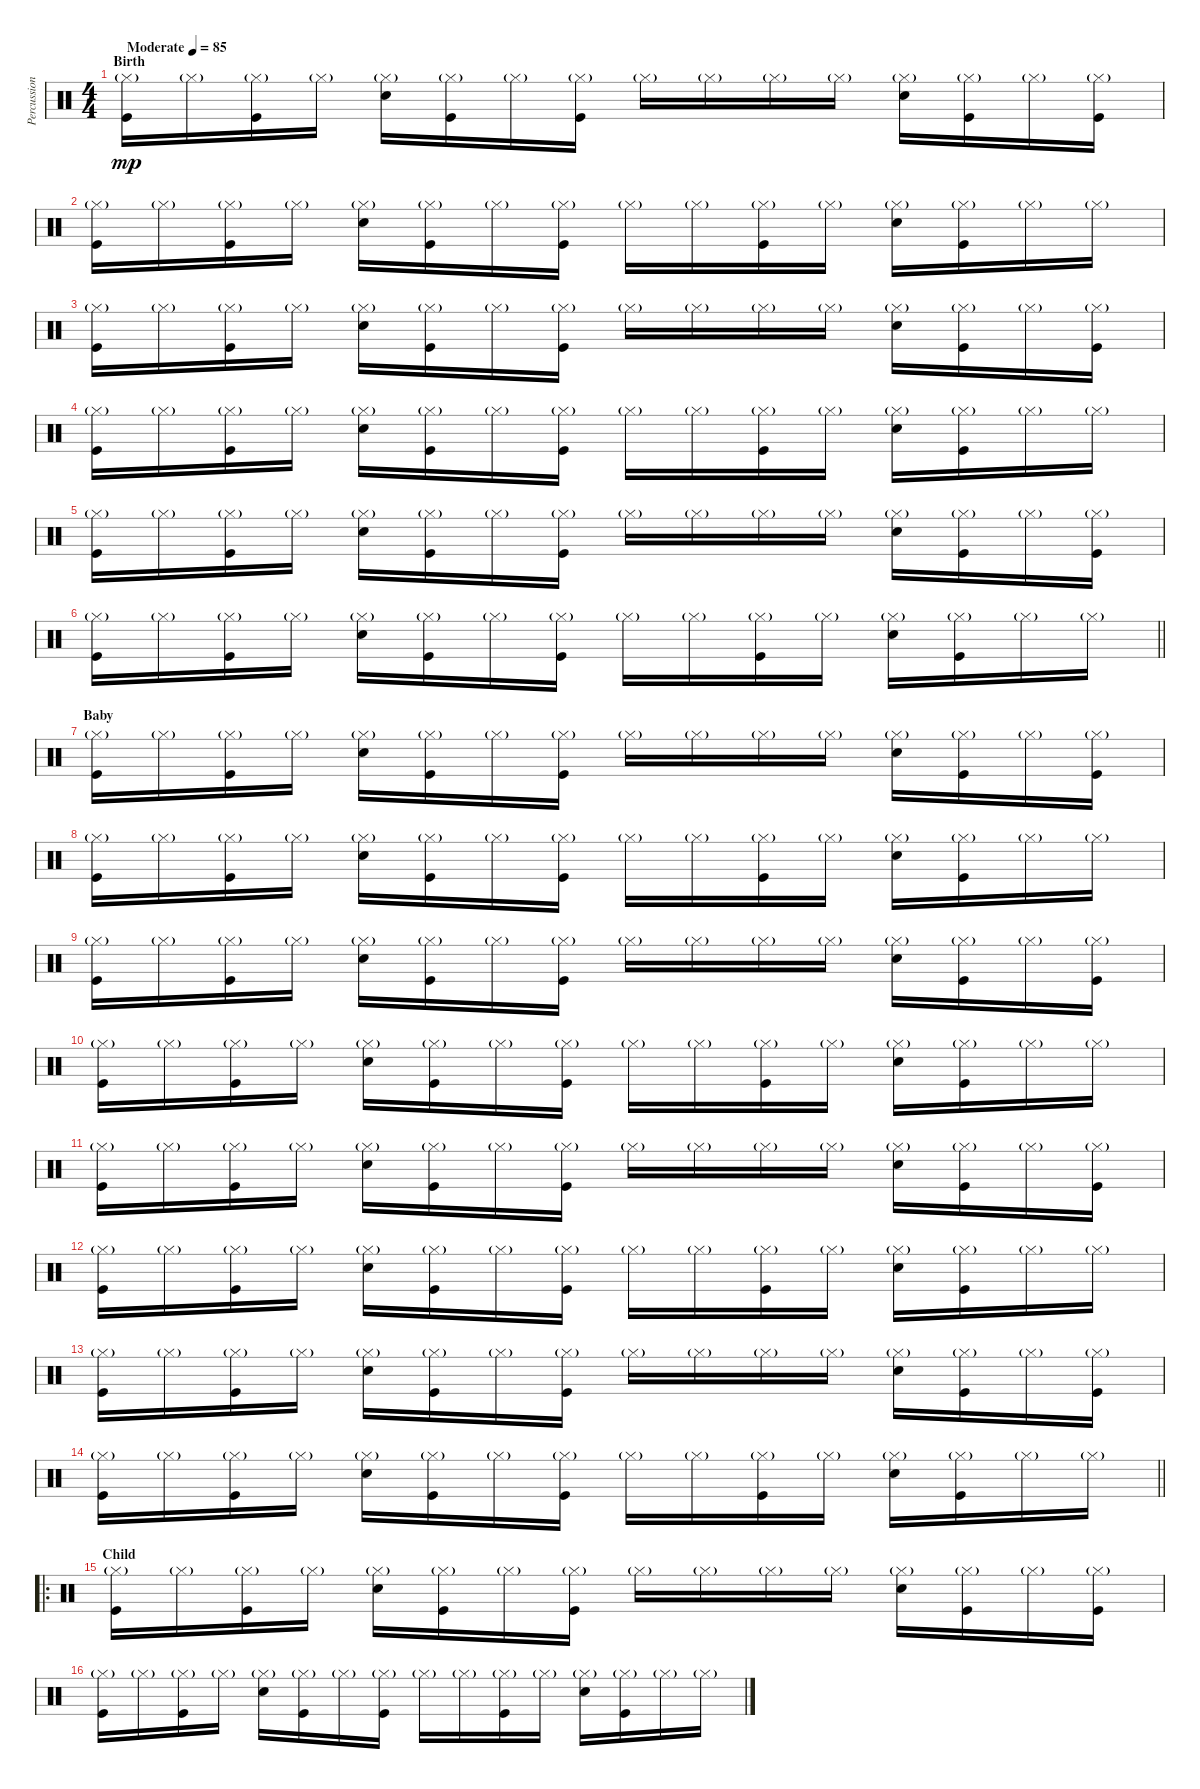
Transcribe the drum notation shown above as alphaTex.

\track ("Percussion" "Percussion") {instrument percussion}
\staff {score}
\articulation defaults
\ts (4 4)
\section ("" "Birth")
\tempo (85 "Moderate")
\clef neutral
\ks c
("Hi-Hat (closed)"{g} "Kick (hit)").16{dy mp volume 10} "Hi-Hat (closed)"{g}.16 ("Hi-Hat (closed)"{g} "Kick (hit)").16 "Hi-Hat (closed)"{g}.16 ("Hi-Hat (closed)"{g} "Hand Clap (hit)").16 ("Hi-Hat (closed)"{g} "Kick (hit)").16 "Hi-Hat (closed)"{g}.16 ("Hi-Hat (closed)"{g} "Kick (hit)").16 "Hi-Hat (closed)"{g}.16 "Hi-Hat (closed)"{g}.16 "Hi-Hat (closed)"{g}.16 "Hi-Hat (closed)"{g}.16 ("Hi-Hat (closed)"{g} "Hand Clap (hit)").16 ("Hi-Hat (closed)"{g} "Kick (hit)").16 "Hi-Hat (closed)"{g}.16 ("Hi-Hat (closed)"{g} "Kick (hit)").16 |
("Hi-Hat (closed)"{g} "Kick (hit)").16 "Hi-Hat (closed)"{g}.16 ("Hi-Hat (closed)"{g} "Kick (hit)").16 "Hi-Hat (closed)"{g}.16 ("Hi-Hat (closed)"{g} "Hand Clap (hit)").16 ("Hi-Hat (closed)"{g} "Kick (hit)").16 "Hi-Hat (closed)"{g}.16 ("Hi-Hat (closed)"{g} "Kick (hit)").16 "Hi-Hat (closed)"{g}.16 "Hi-Hat (closed)"{g}.16 ("Hi-Hat (closed)"{g} "Kick (hit)").16 "Hi-Hat (closed)"{g}.16 ("Hi-Hat (closed)"{g} "Hand Clap (hit)").16 ("Hi-Hat (closed)"{g} "Kick (hit)").16 "Hi-Hat (closed)"{g}.16 "Hi-Hat (closed)"{g}.16 |
("Hi-Hat (closed)"{g} "Kick (hit)").16 "Hi-Hat (closed)"{g}.16 ("Hi-Hat (closed)"{g} "Kick (hit)").16 "Hi-Hat (closed)"{g}.16 ("Hi-Hat (closed)"{g} "Hand Clap (hit)").16 ("Hi-Hat (closed)"{g} "Kick (hit)").16 "Hi-Hat (closed)"{g}.16 ("Hi-Hat (closed)"{g} "Kick (hit)").16 "Hi-Hat (closed)"{g}.16 "Hi-Hat (closed)"{g}.16 "Hi-Hat (closed)"{g}.16 "Hi-Hat (closed)"{g}.16 ("Hi-Hat (closed)"{g} "Hand Clap (hit)").16 ("Hi-Hat (closed)"{g} "Kick (hit)").16 "Hi-Hat (closed)"{g}.16 ("Hi-Hat (closed)"{g} "Kick (hit)").16 |
("Hi-Hat (closed)"{g} "Kick (hit)").16 "Hi-Hat (closed)"{g}.16 ("Hi-Hat (closed)"{g} "Kick (hit)").16 "Hi-Hat (closed)"{g}.16 ("Hi-Hat (closed)"{g} "Hand Clap (hit)").16 ("Hi-Hat (closed)"{g} "Kick (hit)").16 "Hi-Hat (closed)"{g}.16 ("Hi-Hat (closed)"{g} "Kick (hit)").16 "Hi-Hat (closed)"{g}.16 "Hi-Hat (closed)"{g}.16 ("Hi-Hat (closed)"{g} "Kick (hit)").16 "Hi-Hat (closed)"{g}.16 ("Hi-Hat (closed)"{g} "Hand Clap (hit)").16 ("Hi-Hat (closed)"{g} "Kick (hit)").16 "Hi-Hat (closed)"{g}.16 "Hi-Hat (closed)"{g}.16 |
("Hi-Hat (closed)"{g} "Kick (hit)").16 "Hi-Hat (closed)"{g}.16 ("Hi-Hat (closed)"{g} "Kick (hit)").16 "Hi-Hat (closed)"{g}.16 ("Hi-Hat (closed)"{g} "Hand Clap (hit)").16 ("Hi-Hat (closed)"{g} "Kick (hit)").16 "Hi-Hat (closed)"{g}.16 ("Hi-Hat (closed)"{g} "Kick (hit)").16 "Hi-Hat (closed)"{g}.16 "Hi-Hat (closed)"{g}.16 "Hi-Hat (closed)"{g}.16 "Hi-Hat (closed)"{g}.16 ("Hi-Hat (closed)"{g} "Hand Clap (hit)").16 ("Hi-Hat (closed)"{g} "Kick (hit)").16 "Hi-Hat (closed)"{g}.16 ("Hi-Hat (closed)"{g} "Kick (hit)").16 |
\barLineRight lightlight
("Hi-Hat (closed)"{g} "Kick (hit)").16 "Hi-Hat (closed)"{g}.16 ("Hi-Hat (closed)"{g} "Kick (hit)").16 "Hi-Hat (closed)"{g}.16 ("Hi-Hat (closed)"{g} "Hand Clap (hit)").16 ("Hi-Hat (closed)"{g} "Kick (hit)").16 "Hi-Hat (closed)"{g}.16 ("Hi-Hat (closed)"{g} "Kick (hit)").16 "Hi-Hat (closed)"{g}.16 "Hi-Hat (closed)"{g}.16 ("Hi-Hat (closed)"{g} "Kick (hit)").16 "Hi-Hat (closed)"{g}.16 ("Hi-Hat (closed)"{g} "Hand Clap (hit)").16 ("Hi-Hat (closed)"{g} "Kick (hit)").16 "Hi-Hat (closed)"{g}.16 "Hi-Hat (closed)"{g}.16 |
\section ("" "Baby")
("Hi-Hat (closed)"{g} "Kick (hit)").16 "Hi-Hat (closed)"{g}.16 ("Hi-Hat (closed)"{g} "Kick (hit)").16 "Hi-Hat (closed)"{g}.16 ("Hi-Hat (closed)"{g} "Hand Clap (hit)").16 ("Hi-Hat (closed)"{g} "Kick (hit)").16 "Hi-Hat (closed)"{g}.16 ("Hi-Hat (closed)"{g} "Kick (hit)").16 "Hi-Hat (closed)"{g}.16 "Hi-Hat (closed)"{g}.16 "Hi-Hat (closed)"{g}.16 "Hi-Hat (closed)"{g}.16 ("Hi-Hat (closed)"{g} "Hand Clap (hit)").16 ("Hi-Hat (closed)"{g} "Kick (hit)").16 "Hi-Hat (closed)"{g}.16 ("Hi-Hat (closed)"{g} "Kick (hit)").16 |
("Hi-Hat (closed)"{g} "Kick (hit)").16 "Hi-Hat (closed)"{g}.16 ("Hi-Hat (closed)"{g} "Kick (hit)").16 "Hi-Hat (closed)"{g}.16 ("Hi-Hat (closed)"{g} "Hand Clap (hit)").16 ("Hi-Hat (closed)"{g} "Kick (hit)").16 "Hi-Hat (closed)"{g}.16 ("Hi-Hat (closed)"{g} "Kick (hit)").16 "Hi-Hat (closed)"{g}.16 "Hi-Hat (closed)"{g}.16 ("Hi-Hat (closed)"{g} "Kick (hit)").16 "Hi-Hat (closed)"{g}.16 ("Hi-Hat (closed)"{g} "Hand Clap (hit)").16 ("Hi-Hat (closed)"{g} "Kick (hit)").16 "Hi-Hat (closed)"{g}.16 "Hi-Hat (closed)"{g}.16 |
("Hi-Hat (closed)"{g} "Kick (hit)").16 "Hi-Hat (closed)"{g}.16 ("Hi-Hat (closed)"{g} "Kick (hit)").16 "Hi-Hat (closed)"{g}.16 ("Hi-Hat (closed)"{g} "Hand Clap (hit)").16 ("Hi-Hat (closed)"{g} "Kick (hit)").16 "Hi-Hat (closed)"{g}.16 ("Hi-Hat (closed)"{g} "Kick (hit)").16 "Hi-Hat (closed)"{g}.16 "Hi-Hat (closed)"{g}.16 "Hi-Hat (closed)"{g}.16 "Hi-Hat (closed)"{g}.16 ("Hi-Hat (closed)"{g} "Hand Clap (hit)").16 ("Hi-Hat (closed)"{g} "Kick (hit)").16 "Hi-Hat (closed)"{g}.16 ("Hi-Hat (closed)"{g} "Kick (hit)").16 |
("Hi-Hat (closed)"{g} "Kick (hit)").16 "Hi-Hat (closed)"{g}.16 ("Hi-Hat (closed)"{g} "Kick (hit)").16 "Hi-Hat (closed)"{g}.16 ("Hi-Hat (closed)"{g} "Hand Clap (hit)").16 ("Hi-Hat (closed)"{g} "Kick (hit)").16 "Hi-Hat (closed)"{g}.16 ("Hi-Hat (closed)"{g} "Kick (hit)").16 "Hi-Hat (closed)"{g}.16 "Hi-Hat (closed)"{g}.16 ("Hi-Hat (closed)"{g} "Kick (hit)").16 "Hi-Hat (closed)"{g}.16 ("Hi-Hat (closed)"{g} "Hand Clap (hit)").16 ("Hi-Hat (closed)"{g} "Kick (hit)").16 "Hi-Hat (closed)"{g}.16 "Hi-Hat (closed)"{g}.16 |
("Hi-Hat (closed)"{g} "Kick (hit)").16 "Hi-Hat (closed)"{g}.16 ("Hi-Hat (closed)"{g} "Kick (hit)").16 "Hi-Hat (closed)"{g}.16 ("Hi-Hat (closed)"{g} "Hand Clap (hit)").16 ("Hi-Hat (closed)"{g} "Kick (hit)").16 "Hi-Hat (closed)"{g}.16 ("Hi-Hat (closed)"{g} "Kick (hit)").16 "Hi-Hat (closed)"{g}.16 "Hi-Hat (closed)"{g}.16 "Hi-Hat (closed)"{g}.16 "Hi-Hat (closed)"{g}.16 ("Hi-Hat (closed)"{g} "Hand Clap (hit)").16 ("Hi-Hat (closed)"{g} "Kick (hit)").16 "Hi-Hat (closed)"{g}.16 ("Hi-Hat (closed)"{g} "Kick (hit)").16 |
("Hi-Hat (closed)"{g} "Kick (hit)").16 "Hi-Hat (closed)"{g}.16 ("Hi-Hat (closed)"{g} "Kick (hit)").16 "Hi-Hat (closed)"{g}.16 ("Hi-Hat (closed)"{g} "Hand Clap (hit)").16 ("Hi-Hat (closed)"{g} "Kick (hit)").16 "Hi-Hat (closed)"{g}.16 ("Hi-Hat (closed)"{g} "Kick (hit)").16 "Hi-Hat (closed)"{g}.16 "Hi-Hat (closed)"{g}.16 ("Hi-Hat (closed)"{g} "Kick (hit)").16 "Hi-Hat (closed)"{g}.16 ("Hi-Hat (closed)"{g} "Hand Clap (hit)").16 ("Hi-Hat (closed)"{g} "Kick (hit)").16 "Hi-Hat (closed)"{g}.16 "Hi-Hat (closed)"{g}.16 |
("Hi-Hat (closed)"{g} "Kick (hit)").16 "Hi-Hat (closed)"{g}.16 ("Hi-Hat (closed)"{g} "Kick (hit)").16 "Hi-Hat (closed)"{g}.16 ("Hi-Hat (closed)"{g} "Hand Clap (hit)").16 ("Hi-Hat (closed)"{g} "Kick (hit)").16 "Hi-Hat (closed)"{g}.16 ("Hi-Hat (closed)"{g} "Kick (hit)").16 "Hi-Hat (closed)"{g}.16 "Hi-Hat (closed)"{g}.16 "Hi-Hat (closed)"{g}.16 "Hi-Hat (closed)"{g}.16 ("Hi-Hat (closed)"{g} "Hand Clap (hit)").16 ("Hi-Hat (closed)"{g} "Kick (hit)").16 "Hi-Hat (closed)"{g}.16 ("Hi-Hat (closed)"{g} "Kick (hit)").16 |
\barLineRight lightlight
("Hi-Hat (closed)"{g} "Kick (hit)").16 "Hi-Hat (closed)"{g}.16 ("Hi-Hat (closed)"{g} "Kick (hit)").16 "Hi-Hat (closed)"{g}.16 ("Hi-Hat (closed)"{g} "Hand Clap (hit)").16 ("Hi-Hat (closed)"{g} "Kick (hit)").16 "Hi-Hat (closed)"{g}.16 ("Hi-Hat (closed)"{g} "Kick (hit)").16 "Hi-Hat (closed)"{g}.16 "Hi-Hat (closed)"{g}.16 ("Hi-Hat (closed)"{g} "Kick (hit)").16 "Hi-Hat (closed)"{g}.16 ("Hi-Hat (closed)"{g} "Hand Clap (hit)").16 ("Hi-Hat (closed)"{g} "Kick (hit)").16 "Hi-Hat (closed)"{g}.16 "Hi-Hat (closed)"{g}.16 |
\ro
\section ("" "Child")
("Hi-Hat (closed)"{g} "Kick (hit)").16 "Hi-Hat (closed)"{g}.16 ("Hi-Hat (closed)"{g} "Kick (hit)").16 "Hi-Hat (closed)"{g}.16 ("Hi-Hat (closed)"{g} "Hand Clap (hit)").16 ("Hi-Hat (closed)"{g} "Kick (hit)").16 "Hi-Hat (closed)"{g}.16 ("Hi-Hat (closed)"{g} "Kick (hit)").16 "Hi-Hat (closed)"{g}.16 "Hi-Hat (closed)"{g}.16 "Hi-Hat (closed)"{g}.16 "Hi-Hat (closed)"{g}.16 ("Hi-Hat (closed)"{g} "Hand Clap (hit)").16 ("Hi-Hat (closed)"{g} "Kick (hit)").16 "Hi-Hat (closed)"{g}.16 ("Hi-Hat (closed)"{g} "Kick (hit)").16 |
("Hi-Hat (closed)"{g} "Kick (hit)").16 "Hi-Hat (closed)"{g}.16 ("Hi-Hat (closed)"{g} "Kick (hit)").16 "Hi-Hat (closed)"{g}.16 ("Hi-Hat (closed)"{g} "Hand Clap (hit)").16 ("Hi-Hat (closed)"{g} "Kick (hit)").16 "Hi-Hat (closed)"{g}.16 ("Hi-Hat (closed)"{g} "Kick (hit)").16 "Hi-Hat (closed)"{g}.16 "Hi-Hat (closed)"{g}.16 ("Hi-Hat (closed)"{g} "Kick (hit)").16 "Hi-Hat (closed)"{g}.16 ("Hi-Hat (closed)"{g} "Hand Clap (hit)").16 ("Hi-Hat (closed)"{g} "Kick (hit)").16 "Hi-Hat (closed)"{g}.16 "Hi-Hat (closed)"{g}.16
